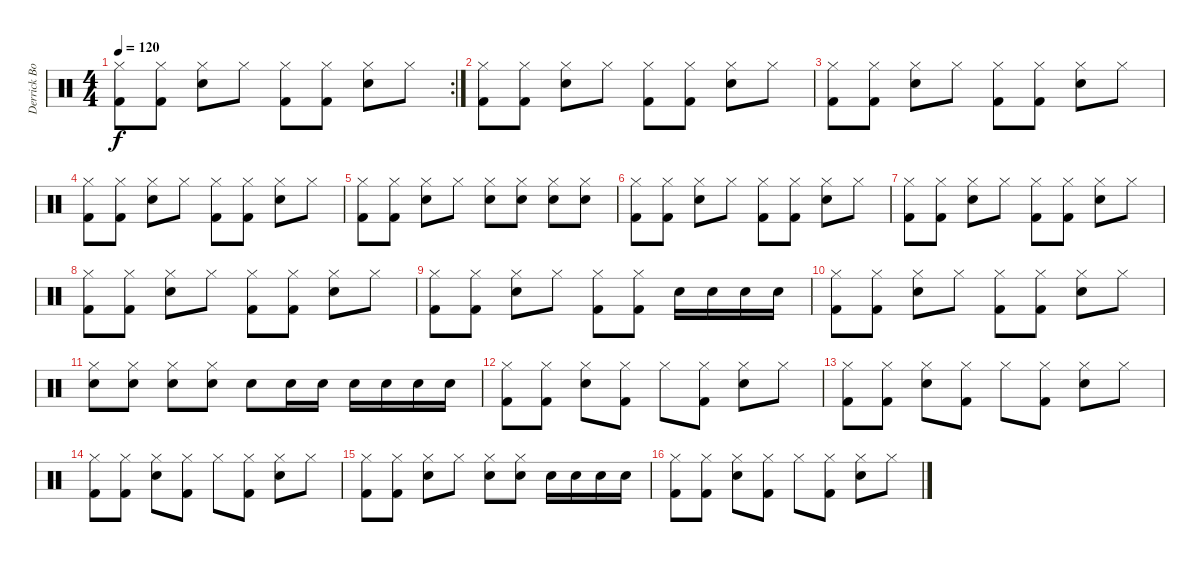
\track ("Derrick Bostrom" "Derrick Bo") {instrument percussion}
\staff {score}
\articulation defaults
\rc 2
\ts (4 4)
\tempo 120
\clef neutral
\ks c
("Hi-Hat (closed)" "Kick (hit) 2").8{dy f} ("Hi-Hat (closed)" "Kick (hit) 2").8 ("Hi-Hat (closed)" "Snare (hit) 2").8 "Hi-Hat (closed)".8 ("Hi-Hat (closed)" "Kick (hit) 2").8 ("Hi-Hat (closed)" "Kick (hit) 2").8 ("Hi-Hat (closed)" "Snare (hit) 2").8 "Hi-Hat (closed)".8 |
("Hi-Hat (closed)" "Kick (hit) 2").8 ("Hi-Hat (closed)" "Kick (hit) 2").8 ("Hi-Hat (closed)" "Snare (hit) 2").8 "Hi-Hat (closed)".8 ("Hi-Hat (closed)" "Kick (hit) 2").8 ("Hi-Hat (closed)" "Kick (hit) 2").8 ("Hi-Hat (closed)" "Snare (hit) 2").8 "Hi-Hat (closed)".8 |
("Hi-Hat (closed)" "Kick (hit) 2").8 ("Hi-Hat (closed)" "Kick (hit) 2").8 ("Hi-Hat (closed)" "Snare (hit) 2").8 "Hi-Hat (closed)".8 ("Hi-Hat (closed)" "Kick (hit) 2").8 ("Hi-Hat (closed)" "Kick (hit) 2").8 ("Hi-Hat (closed)" "Snare (hit) 2").8 "Hi-Hat (closed)".8 |
("Hi-Hat (closed)" "Kick (hit) 2").8 ("Hi-Hat (closed)" "Kick (hit) 2").8 ("Hi-Hat (closed)" "Snare (hit) 2").8 "Hi-Hat (closed)".8 ("Hi-Hat (closed)" "Kick (hit) 2").8 ("Hi-Hat (closed)" "Kick (hit) 2").8 ("Hi-Hat (closed)" "Snare (hit) 2").8 "Hi-Hat (closed)".8 |
("Hi-Hat (closed)" "Kick (hit) 2").8 ("Hi-Hat (closed)" "Kick (hit) 2").8 ("Hi-Hat (closed)" "Snare (hit) 2").8 "Hi-Hat (closed)".8 ("Hi-Hat (closed)" "Snare (hit) 2").8 ("Hi-Hat (closed)" "Snare (hit) 2").8 ("Hi-Hat (closed)" "Snare (hit) 2").8 ("Hi-Hat (closed)" "Snare (hit) 2").8 |
("Hi-Hat (closed)" "Kick (hit) 2").8 ("Hi-Hat (closed)" "Kick (hit) 2").8 ("Hi-Hat (closed)" "Snare (hit) 2").8 "Hi-Hat (closed)".8 ("Hi-Hat (closed)" "Kick (hit) 2").8 ("Hi-Hat (closed)" "Kick (hit) 2").8 ("Hi-Hat (closed)" "Snare (hit) 2").8 "Hi-Hat (closed)".8 |
("Hi-Hat (closed)" "Kick (hit) 2").8 ("Hi-Hat (closed)" "Kick (hit) 2").8 ("Hi-Hat (closed)" "Snare (hit) 2").8 "Hi-Hat (closed)".8 ("Hi-Hat (closed)" "Kick (hit) 2").8 ("Hi-Hat (closed)" "Kick (hit) 2").8 ("Hi-Hat (closed)" "Snare (hit) 2").8 "Hi-Hat (closed)".8 |
("Hi-Hat (closed)" "Kick (hit) 2").8 ("Hi-Hat (closed)" "Kick (hit) 2").8 ("Hi-Hat (closed)" "Snare (hit) 2").8 "Hi-Hat (closed)".8 ("Hi-Hat (closed)" "Kick (hit) 2").8 ("Hi-Hat (closed)" "Kick (hit) 2").8 ("Hi-Hat (closed)" "Snare (hit) 2").8 "Hi-Hat (closed)".8 |
("Hi-Hat (closed)" "Kick (hit) 2").8 ("Hi-Hat (closed)" "Kick (hit) 2").8 ("Hi-Hat (closed)" "Snare (hit) 2").8 "Hi-Hat (closed)".8 ("Hi-Hat (closed)" "Kick (hit) 2").8 ("Hi-Hat (closed)" "Kick (hit) 2").8 "Snare (hit) 2".16 "Snare (hit) 2".16 "Snare (hit) 2".16 "Snare (hit) 2".16 |
("Hi-Hat (closed)" "Kick (hit) 2").8 ("Hi-Hat (closed)" "Kick (hit) 2").8 ("Hi-Hat (closed)" "Snare (hit) 2").8 "Hi-Hat (closed)".8 ("Hi-Hat (closed)" "Kick (hit) 2").8 ("Hi-Hat (closed)" "Kick (hit) 2").8 ("Hi-Hat (closed)" "Snare (hit) 2").8 "Hi-Hat (closed)".8 |
("Hi-Hat (closed)" "Snare (hit) 2").8 ("Hi-Hat (closed)" "Snare (hit) 2").8 ("Hi-Hat (closed)" "Snare (hit) 2").8 ("Hi-Hat (closed)" "Snare (hit) 2").8 "Snare (hit) 2".8 "Snare (hit) 2".16 "Snare (hit) 2".16 "Snare (hit) 2".16 "Snare (hit) 2".16 "Snare (hit) 2".16 "Snare (hit) 2".16 |
("Hi-Hat (closed)" "Kick (hit) 2").8 ("Hi-Hat (closed)" "Kick (hit) 2").8 ("Hi-Hat (closed)" "Snare (hit) 2").8 ("Hi-Hat (closed)" "Kick (hit) 2").8 "Hi-Hat (closed)".8 ("Hi-Hat (closed)" "Kick (hit) 2").8 ("Hi-Hat (closed)" "Snare (hit) 2").8 "Hi-Hat (closed)".8 |
("Hi-Hat (closed)" "Kick (hit) 2").8 ("Hi-Hat (closed)" "Kick (hit) 2").8 ("Hi-Hat (closed)" "Snare (hit) 2").8 ("Hi-Hat (closed)" "Kick (hit) 2").8 "Hi-Hat (closed)".8 ("Hi-Hat (closed)" "Kick (hit) 2").8 ("Hi-Hat (closed)" "Snare (hit) 2").8 "Hi-Hat (closed)".8 |
("Hi-Hat (closed)" "Kick (hit) 2").8 ("Hi-Hat (closed)" "Kick (hit) 2").8 ("Hi-Hat (closed)" "Snare (hit) 2").8 ("Hi-Hat (closed)" "Kick (hit) 2").8 "Hi-Hat (closed)".8 ("Hi-Hat (closed)" "Kick (hit) 2").8 ("Hi-Hat (closed)" "Snare (hit) 2").8 "Hi-Hat (closed)".8 |
("Hi-Hat (closed)" "Kick (hit) 2").8 ("Hi-Hat (closed)" "Kick (hit) 2").8 ("Hi-Hat (closed)" "Snare (hit) 2").8 "Hi-Hat (closed)".8 ("Hi-Hat (closed)" "Snare (hit) 2").8 ("Hi-Hat (closed)" "Snare (hit) 2").8 "Snare (hit) 2".16 "Snare (hit) 2".16 "Snare (hit) 2".16 "Snare (hit) 2".16 |
("Hi-Hat (closed)" "Kick (hit) 2").8 ("Hi-Hat (closed)" "Kick (hit) 2").8 ("Hi-Hat (closed)" "Snare (hit) 2").8 ("Hi-Hat (closed)" "Kick (hit) 2").8 "Hi-Hat (closed)".8 ("Hi-Hat (closed)" "Kick (hit) 2").8 ("Hi-Hat (closed)" "Snare (hit) 2").8 "Hi-Hat (closed)".8
